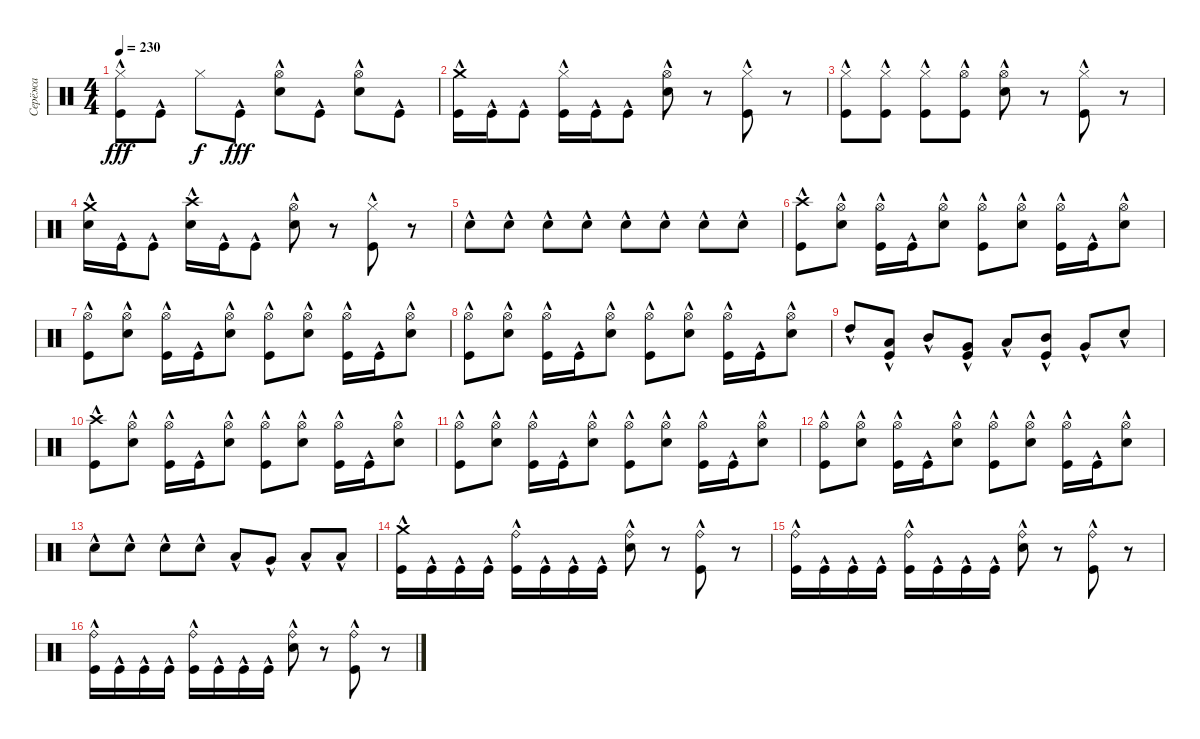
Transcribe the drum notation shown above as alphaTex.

\track ("Серёжа" "Серёжа") {instrument percussion}
\staff {score}
\articulation defaults
\ts (4 4)
\tempo 230
\clef neutral
\ks c
("Hi-Hat (closed)" "Kick (hit)"{hac}).8{dy fff} "Kick (hit)"{hac}.8 "Hi-Hat (closed)".8{dy f} "Kick (hit)"{hac}.8{dy fff} ("Hi-Hat (open)" "Snare (hit) 2"{hac}).8 "Kick (hit)"{hac}.8 ("Hi-Hat (open)"{hac} "Snare (hit) 2"{hac}).8 "Kick (hit)"{hac}.8 |
("Crash medium (hit)" "Kick (hit)"{hac}).16 "Kick (hit)"{hac}.16 "Kick (hit)"{hac}.8 ("Hi-Hat (closed)" "Kick (hit)"{hac}).16 "Kick (hit)"{hac}.16 "Kick (hit)"{hac}.8 ("Hi-Hat (open)" "Snare (hit) 2"{hac}).8 r.8 ("Hi-Hat (closed)" "Kick (hit)"{hac}).8 r.8 |
("Hi-Hat (closed)" "Kick (hit)"{hac}).8 ("Hi-Hat (closed)" "Kick (hit)"{hac}).8 ("Hi-Hat (closed)" "Kick (hit)"{hac}).8 ("Hi-Hat (open)" "Kick (hit)"{hac}).8 ("Hi-Hat (open)" "Snare (hit) 2"{hac}).8 r.8 ("Hi-Hat (closed)" "Kick (hit)"{hac}).8 r.8 |
("Crash medium (hit)" "Snare (hit) 2"{hac}).16 "Kick (hit)"{hac}.16 "Kick (hit)"{hac}.8 ("Crash high (hit)" "Snare (hit) 2"{hac}).16 "Kick (hit)"{hac}.16 "Kick (hit)"{hac}.8 ("Hi-Hat (open)" "Snare (hit) 2"{hac}).8 r.8 ("Hi-Hat (closed)" "Kick (hit)"{hac}).8 r.8 |
"Snare (hit) 2"{hac}.8 "Snare (hit) 2"{hac}.8 "Snare (hit) 2"{hac}.8 "Snare (hit) 2"{hac}.8 "Snare (hit) 2"{hac}.8 "Snare (hit) 2"{hac}.8 "Snare (hit) 2"{hac}.8 "Snare (hit) 2"{hac}.8 |
("Crash high (hit)"{hac} "Kick (hit)"{hac}).8 ("Hi-Hat (open)" "Snare (hit) 2"{hac}).8 ("Hi-Hat (open)" "Kick (hit)"{hac}).16 "Kick (hit)"{hac}.16 ("Hi-Hat (open)" "Snare (hit) 2"{hac}).8 ("Hi-Hat (open)" "Kick (hit)"{hac}).8 ("Hi-Hat (open)" "Snare (hit) 2"{hac}).8 ("Hi-Hat (open)" "Kick (hit)"{hac}).16 "Kick (hit)"{hac}.16 ("Hi-Hat (open)" "Snare (hit) 2"{hac}).8 |
("Hi-Hat (open)" "Kick (hit)"{hac}).8 ("Hi-Hat (open)" "Snare (hit) 2"{hac}).8 ("Hi-Hat (open)" "Kick (hit)"{hac}).16 "Kick (hit)"{hac}.16 ("Hi-Hat (open)" "Snare (hit) 2"{hac}).8 ("Hi-Hat (open)" "Kick (hit)"{hac}).8 ("Hi-Hat (open)" "Snare (hit) 2"{hac}).8 ("Hi-Hat (open)" "Kick (hit)"{hac}).16 "Kick (hit)"{hac}.16 ("Hi-Hat (open)" "Snare (hit) 2"{hac}).8 |
("Hi-Hat (open)" "Kick (hit)"{hac}).8 ("Hi-Hat (open)" "Snare (hit) 2"{hac}).8 ("Hi-Hat (open)" "Kick (hit)"{hac}).16 "Kick (hit)"{hac}.16 ("Hi-Hat (open)" "Snare (hit) 2"{hac}).8 ("Hi-Hat (open)" "Kick (hit)"{hac}).8 ("Hi-Hat (open)" "Snare (hit) 2"{hac}).8 ("Hi-Hat (open)" "Kick (hit)"{hac}).16 "Kick (hit)"{hac}.16 ("Hi-Hat (open)" "Snare (hit) 2"{hac}).8 |
"High Tom (hit)"{hac}.8 ("Low Tom (hit)"{hac} "Kick (hit)"{hac}).8 "Mid Tom (hit)"{hac}.8 ("Very Low Tom (hit)"{hac} "Kick (hit)"{hac}).8 "Low Tom (hit)"{hac}.8 ("Mid Tom (hit)"{hac} "Kick (hit)"{hac}).8 "Very Low Tom (hit)"{hac}.8 "Snare (hit) 2"{hac}.8 |
("Crash high (hit)"{hac} "Kick (hit)"{hac}).8 ("Hi-Hat (open)" "Snare (hit) 2"{hac}).8 ("Hi-Hat (open)" "Kick (hit)"{hac}).16 "Kick (hit)"{hac}.16 ("Hi-Hat (open)" "Snare (hit) 2"{hac}).8 ("Hi-Hat (open)" "Kick (hit)"{hac}).8 ("Hi-Hat (open)" "Snare (hit) 2"{hac}).8 ("Hi-Hat (open)" "Kick (hit)"{hac}).16 "Kick (hit)"{hac}.16 ("Hi-Hat (open)" "Snare (hit) 2"{hac}).8 |
("Hi-Hat (open)" "Kick (hit)"{hac}).8 ("Hi-Hat (open)" "Snare (hit) 2"{hac}).8 ("Hi-Hat (open)" "Kick (hit)"{hac}).16 "Kick (hit)"{hac}.16 ("Hi-Hat (open)" "Snare (hit) 2"{hac}).8 ("Hi-Hat (open)" "Kick (hit)"{hac}).8 ("Hi-Hat (open)" "Snare (hit) 2"{hac}).8 ("Hi-Hat (open)" "Kick (hit)"{hac}).16 "Kick (hit)"{hac}.16 ("Hi-Hat (open)" "Snare (hit) 2"{hac}).8 |
("Hi-Hat (open)" "Kick (hit)"{hac}).8 ("Hi-Hat (open)" "Snare (hit) 2"{hac}).8 ("Hi-Hat (open)" "Kick (hit)"{hac}).16 "Kick (hit)"{hac}.16 ("Hi-Hat (open)" "Snare (hit) 2"{hac}).8 ("Hi-Hat (open)" "Kick (hit)"{hac}).8 ("Hi-Hat (open)" "Snare (hit) 2"{hac}).8 ("Hi-Hat (open)" "Kick (hit)"{hac}).16 "Kick (hit)"{hac}.16 ("Hi-Hat (open)" "Snare (hit) 2"{hac}).8 |
"Snare (hit) 2"{hac}.8 "Snare (hit) 2"{hac}.8 "Snare (hit) 2"{hac}.8 "Snare (hit) 2"{hac}.8 "Low Tom (hit)"{hac}.8 "Very Low Tom (hit)"{hac}.8 "Low Tom (hit)"{hac}.8 "Low Floor Tom (hit)"{hac}.8 |
("Crash medium (hit)"{hac} "Kick (hit)"{hac}).16 "Kick (hit)"{hac}.16 "Kick (hit)"{hac}.16 "Kick (hit)"{hac}.16 ("Ride (bell)" "Kick (hit)"{hac}).16 "Kick (hit)"{hac}.16 "Kick (hit)"{hac}.16 "Kick (hit)"{hac}.16 ("Ride (bell)" "Snare (hit) 2"{hac}).8 r.8 ("Ride (bell)" "Kick (hit)"{hac}).8 r.8 |
("Ride (bell)" "Kick (hit)"{hac}).16 "Kick (hit)"{hac}.16 "Kick (hit)"{hac}.16 "Kick (hit)"{hac}.16 ("Ride (bell)" "Kick (hit)"{hac}).16 "Kick (hit)"{hac}.16 "Kick (hit)"{hac}.16 "Kick (hit)"{hac}.16 ("Ride (bell)" "Snare (hit) 2"{hac}).8 r.8 ("Ride (bell)" "Kick (hit)"{hac}).8 r.8 |
("Ride (bell)" "Kick (hit)"{hac}).16 "Kick (hit)"{hac}.16 "Kick (hit)"{hac}.16 "Kick (hit)"{hac}.16 ("Ride (bell)" "Kick (hit)"{hac}).16 "Kick (hit)"{hac}.16 "Kick (hit)"{hac}.16 "Kick (hit)"{hac}.16 ("Ride (bell)" "Snare (hit) 2"{hac}).8 r.8 ("Ride (bell)" "Kick (hit)"{hac}).8 r.8
